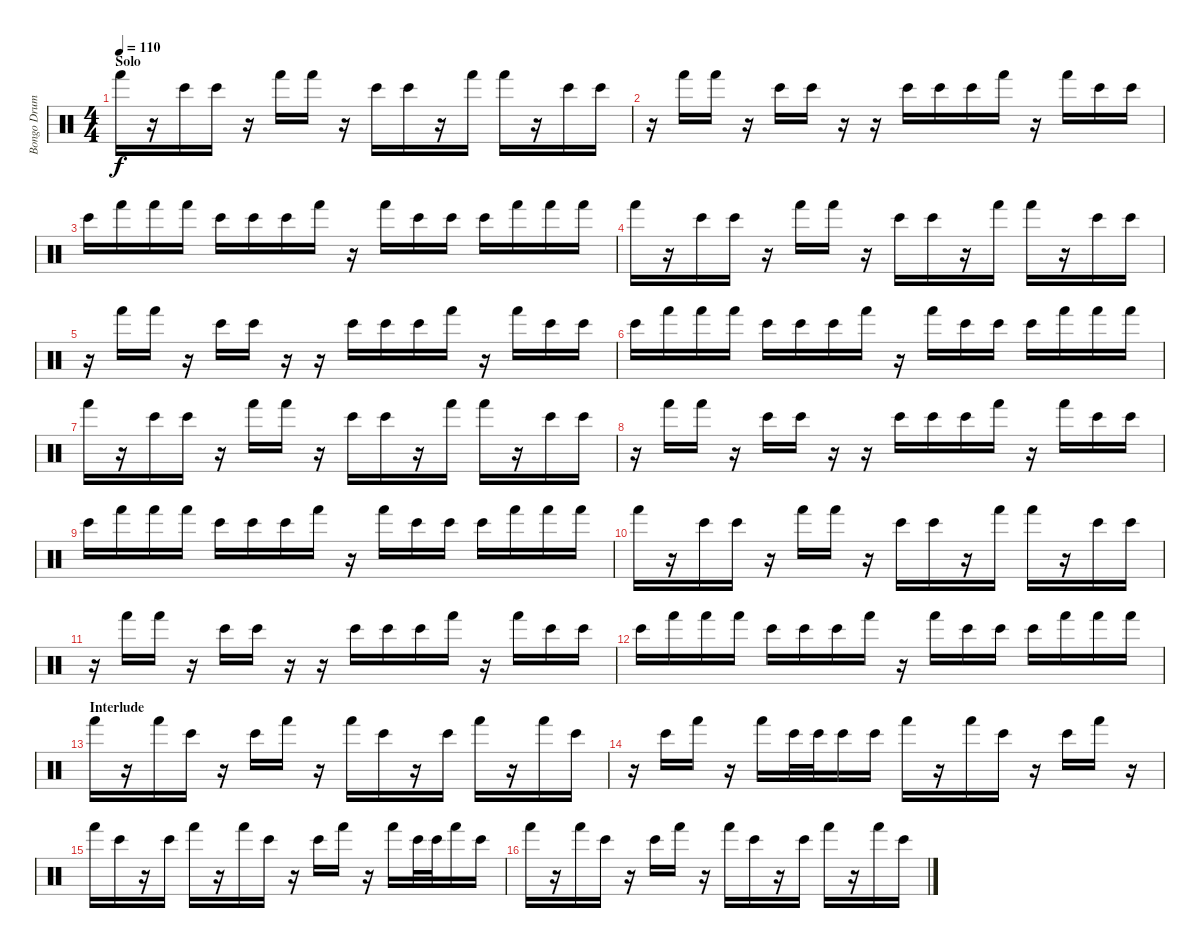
\track ("Bongo Drums" "Bongo Drum") {instrument percussion}
\staff {score}
\articulation defaults
\ts (4 4)
\section ("" "Solo")
\tempo 110
\clef neutral
\ks c "Hand (hit)".16{dy f}
r.16 "Bongo High (hit)".16 "Bongo High (hit)".16 r.16 "Hand (hit)".16 "Hand (hit)".16 r.16 "Bongo High (hit)".16 "Bongo High (hit)".16 r.16 "Hand (hit)".16 "Hand (hit)".16 r.16 "Bongo High (hit)".16 "Bongo High (hit)".16 |
r.16 "Hand (hit)".16 "Hand (hit)".16 r.16 "Bongo High (hit)".16 "Bongo High (hit)".16 r.16 r.16 "Bongo High (hit)".16 "Bongo High (hit)".16 "Bongo High (hit)".16 "Hand (hit)".16 r.16 "Hand (hit)".16 "Bongo High (hit)".16 "Bongo High (hit)".16 |
"Bongo High (hit)".16 "Hand (hit)".16 "Hand (hit)".16 "Hand (hit)".16 "Bongo High (hit)".16 "Bongo High (hit)".16 "Bongo High (hit)".16 "Hand (hit)".16 r.16 "Hand (hit)".16 "Bongo High (hit)".16 "Bongo High (hit)".16 "Bongo High (hit)".16 "Hand (hit)".16 "Hand (hit)".16 "Hand (hit)".16 |
"Hand (hit)".16 r.16 "Bongo High (hit)".16 "Bongo High (hit)".16 r.16 "Hand (hit)".16 "Hand (hit)".16 r.16 "Bongo High (hit)".16 "Bongo High (hit)".16 r.16 "Hand (hit)".16 "Hand (hit)".16 r.16 "Bongo High (hit)".16 "Bongo High (hit)".16 |
r.16 "Hand (hit)".16 "Hand (hit)".16 r.16 "Bongo High (hit)".16 "Bongo High (hit)".16 r.16 r.16 "Bongo High (hit)".16 "Bongo High (hit)".16 "Bongo High (hit)".16 "Hand (hit)".16 r.16 "Hand (hit)".16 "Bongo High (hit)".16 "Bongo High (hit)".16 |
"Bongo High (hit)".16 "Hand (hit)".16 "Hand (hit)".16 "Hand (hit)".16 "Bongo High (hit)".16 "Bongo High (hit)".16 "Bongo High (hit)".16 "Hand (hit)".16 r.16 "Hand (hit)".16 "Bongo High (hit)".16 "Bongo High (hit)".16 "Bongo High (hit)".16 "Hand (hit)".16 "Hand (hit)".16 "Hand (hit)".16 |
"Hand (hit)".16 r.16 "Bongo High (hit)".16 "Bongo High (hit)".16 r.16 "Hand (hit)".16 "Hand (hit)".16 r.16 "Bongo High (hit)".16 "Bongo High (hit)".16 r.16 "Hand (hit)".16 "Hand (hit)".16 r.16 "Bongo High (hit)".16 "Bongo High (hit)".16 |
r.16 "Hand (hit)".16 "Hand (hit)".16 r.16 "Bongo High (hit)".16 "Bongo High (hit)".16 r.16 r.16 "Bongo High (hit)".16 "Bongo High (hit)".16 "Bongo High (hit)".16 "Hand (hit)".16 r.16 "Hand (hit)".16 "Bongo High (hit)".16 "Bongo High (hit)".16 |
"Bongo High (hit)".16 "Hand (hit)".16 "Hand (hit)".16 "Hand (hit)".16 "Bongo High (hit)".16 "Bongo High (hit)".16 "Bongo High (hit)".16 "Hand (hit)".16 r.16 "Hand (hit)".16 "Bongo High (hit)".16 "Bongo High (hit)".16 "Bongo High (hit)".16 "Hand (hit)".16 "Hand (hit)".16 "Hand (hit)".16 |
"Hand (hit)".16 r.16 "Bongo High (hit)".16 "Bongo High (hit)".16 r.16 "Hand (hit)".16 "Hand (hit)".16 r.16 "Bongo High (hit)".16 "Bongo High (hit)".16 r.16 "Hand (hit)".16 "Hand (hit)".16 r.16 "Bongo High (hit)".16 "Bongo High (hit)".16 |
r.16 "Hand (hit)".16 "Hand (hit)".16 r.16 "Bongo High (hit)".16 "Bongo High (hit)".16 r.16 r.16 "Bongo High (hit)".16 "Bongo High (hit)".16 "Bongo High (hit)".16 "Hand (hit)".16 r.16 "Hand (hit)".16 "Bongo High (hit)".16 "Bongo High (hit)".16 |
"Bongo High (hit)".16 "Hand (hit)".16 "Hand (hit)".16 "Hand (hit)".16 "Bongo High (hit)".16 "Bongo High (hit)".16 "Bongo High (hit)".16 "Hand (hit)".16 r.16 "Hand (hit)".16 "Bongo High (hit)".16 "Bongo High (hit)".16 "Bongo High (hit)".16 "Hand (hit)".16 "Hand (hit)".16 "Hand (hit)".16 |
\section ("" "Interlude")
"Hand (hit)".16 r.16 "Hand (hit)".16 "Bongo High (hit)".16 r.16 "Bongo High (hit)".16 "Hand (hit)".16 r.16 "Hand (hit)".16 "Bongo High (hit)".16 r.16 "Bongo High (hit)".16 "Hand (hit)".16 r.16 "Hand (hit)".16 "Bongo High (hit)".16 |
r.16 "Bongo High (hit)".16 "Hand (hit)".16 r.16 "Hand (hit)".16 "Bongo High (hit)".32 "Bongo High (hit)".32 "Bongo High (hit)".16 "Bongo High (hit)".16 "Hand (hit)".16 r.16 "Hand (hit)".16 "Bongo High (hit)".16 r.16 "Bongo High (hit)".16 "Hand (hit)".16 r.16 |
"Hand (hit)".16 "Bongo High (hit)".16 r.16 "Bongo High (hit)".16 "Hand (hit)".16 r.16 "Hand (hit)".16 "Bongo High (hit)".16 r.16 "Bongo High (hit)".16 "Hand (hit)".16 r.16 "Hand (hit)".16 "Bongo High (hit)".32 "Bongo High (hit)".32 "Hand (hit)".16 "Bongo High (hit)".16 |
"Hand (hit)".16 r.16 "Hand (hit)".16 "Bongo High (hit)".16 r.16 "Bongo High (hit)".16 "Hand (hit)".16 r.16 "Hand (hit)".16 "Bongo High (hit)".16 r.16 "Bongo High (hit)".16 "Hand (hit)".16 r.16 "Hand (hit)".16 "Bongo High (hit)".16
